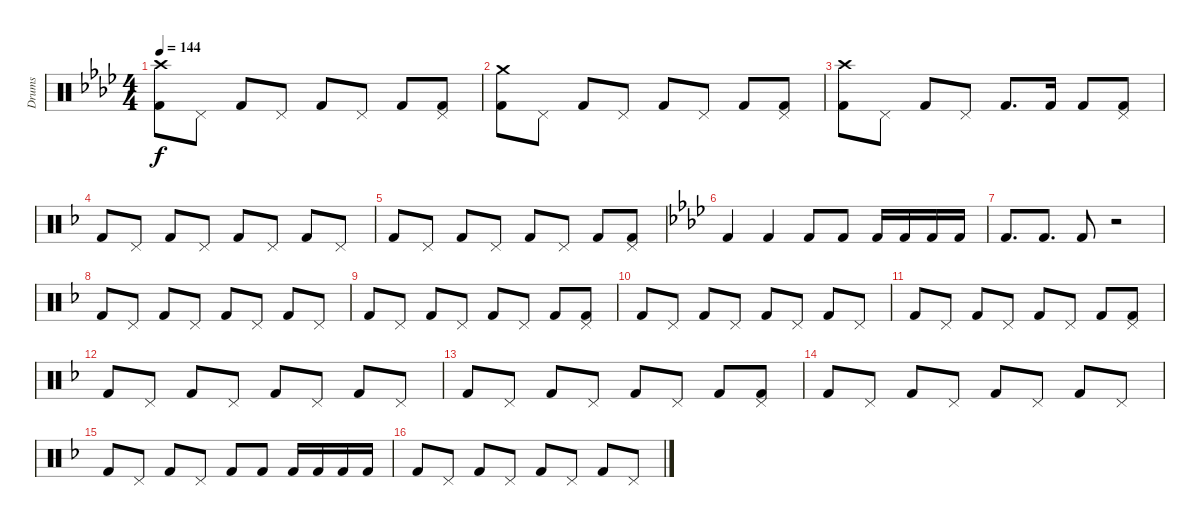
\track ("Drums" "Drums") {instrument percussion}
\staff {score}
\articulation defaults
\ts (4 4)
\tempo 144
\clef neutral
\ks ab
("Kick (hit) 2" "Crash high (hit)").8{dy f} "Pedal Hi-Hat (hit)".8 "Kick (hit) 2".8 "Pedal Hi-Hat (hit)".8 "Kick (hit) 2".8 "Pedal Hi-Hat (hit)".8 "Kick (hit) 2".8 ("Kick (hit) 2" "Pedal Hi-Hat (hit)").8 |
("Kick (hit) 2" "Crash medium (hit)").8 "Pedal Hi-Hat (hit)".8 "Kick (hit) 2".8 "Pedal Hi-Hat (hit)".8 "Kick (hit) 2".8 "Pedal Hi-Hat (hit)".8 "Kick (hit) 2".8 ("Kick (hit) 2" "Pedal Hi-Hat (hit)").8 |
("Kick (hit) 2" "Crash high (hit)").8 "Pedal Hi-Hat (hit)".8 "Kick (hit) 2".8 "Pedal Hi-Hat (hit)".8 "Kick (hit) 2".8{d} "Kick (hit) 2".16 "Kick (hit) 2".8 ("Kick (hit) 2" "Pedal Hi-Hat (hit)").8 |
\ks f "Kick (hit) 2".8 "Pedal Hi-Hat (hit)".8 "Kick (hit) 2".8 "Pedal Hi-Hat (hit)".8 "Kick (hit) 2".8 "Pedal Hi-Hat (hit)".8 "Kick (hit) 2".8 "Pedal Hi-Hat (hit)".8
|
"Kick (hit) 2".8 "Pedal Hi-Hat (hit)".8 "Kick (hit) 2".8 "Pedal Hi-Hat (hit)".8 "Kick (hit) 2".8 "Pedal Hi-Hat (hit)".8 "Kick (hit) 2".8 ("Kick (hit) 2" "Pedal Hi-Hat (hit)").8 |
\ks ab "Kick (hit) 2".4 "Kick (hit) 2".4 "Kick (hit) 2".8 "Kick (hit) 2".8 "Kick (hit) 2".16 "Kick (hit) 2".16 "Kick (hit) 2".16 "Kick (hit) 2".16
|
"Kick (hit) 2".8{d} "Kick (hit) 2".8{d} "Kick (hit) 2".8 r.2 |
\ks f "Kick (hit) 2".8 "Pedal Hi-Hat (hit)".8 "Kick (hit) 2".8 "Pedal Hi-Hat (hit)".8 "Kick (hit) 2".8 "Pedal Hi-Hat (hit)".8 "Kick (hit) 2".8 "Pedal Hi-Hat (hit)".8
|
"Kick (hit) 2".8 "Pedal Hi-Hat (hit)".8 "Kick (hit) 2".8 "Pedal Hi-Hat (hit)".8 "Kick (hit) 2".8 "Pedal Hi-Hat (hit)".8 "Kick (hit) 2".8 ("Kick (hit) 2" "Pedal Hi-Hat (hit)").8 |
"Kick (hit) 2".8 "Pedal Hi-Hat (hit)".8 "Kick (hit) 2".8 "Pedal Hi-Hat (hit)".8 "Kick (hit) 2".8 "Pedal Hi-Hat (hit)".8 "Kick (hit) 2".8 "Pedal Hi-Hat (hit)".8 |
"Kick (hit) 2".8 "Pedal Hi-Hat (hit)".8 "Kick (hit) 2".8 "Pedal Hi-Hat (hit)".8 "Kick (hit) 2".8 "Pedal Hi-Hat (hit)".8 "Kick (hit) 2".8 ("Kick (hit) 2" "Pedal Hi-Hat (hit)").8 |
"Kick (hit) 2".8 "Pedal Hi-Hat (hit)".8 "Kick (hit) 2".8 "Pedal Hi-Hat (hit)".8 "Kick (hit) 2".8 "Pedal Hi-Hat (hit)".8 "Kick (hit) 2".8 "Pedal Hi-Hat (hit)".8 |
"Kick (hit) 2".8 "Pedal Hi-Hat (hit)".8 "Kick (hit) 2".8 "Pedal Hi-Hat (hit)".8 "Kick (hit) 2".8 "Pedal Hi-Hat (hit)".8 "Kick (hit) 2".8 ("Kick (hit) 2" "Pedal Hi-Hat (hit)").8 |
"Kick (hit) 2".8 "Pedal Hi-Hat (hit)".8 "Kick (hit) 2".8 "Pedal Hi-Hat (hit)".8 "Kick (hit) 2".8 "Pedal Hi-Hat (hit)".8 "Kick (hit) 2".8 "Pedal Hi-Hat (hit)".8 |
"Kick (hit) 2".8 "Pedal Hi-Hat (hit)".8 "Kick (hit) 2".8 "Pedal Hi-Hat (hit)".8 "Kick (hit) 2".8 "Kick (hit) 2".8 "Kick (hit) 2".16 "Kick (hit) 2".16 "Kick (hit) 2".16 "Kick (hit) 2".16 |
"Kick (hit) 2".8 "Pedal Hi-Hat (hit)".8 "Kick (hit) 2".8 "Pedal Hi-Hat (hit)".8 "Kick (hit) 2".8 "Pedal Hi-Hat (hit)".8 "Kick (hit) 2".8 "Pedal Hi-Hat (hit)".8
